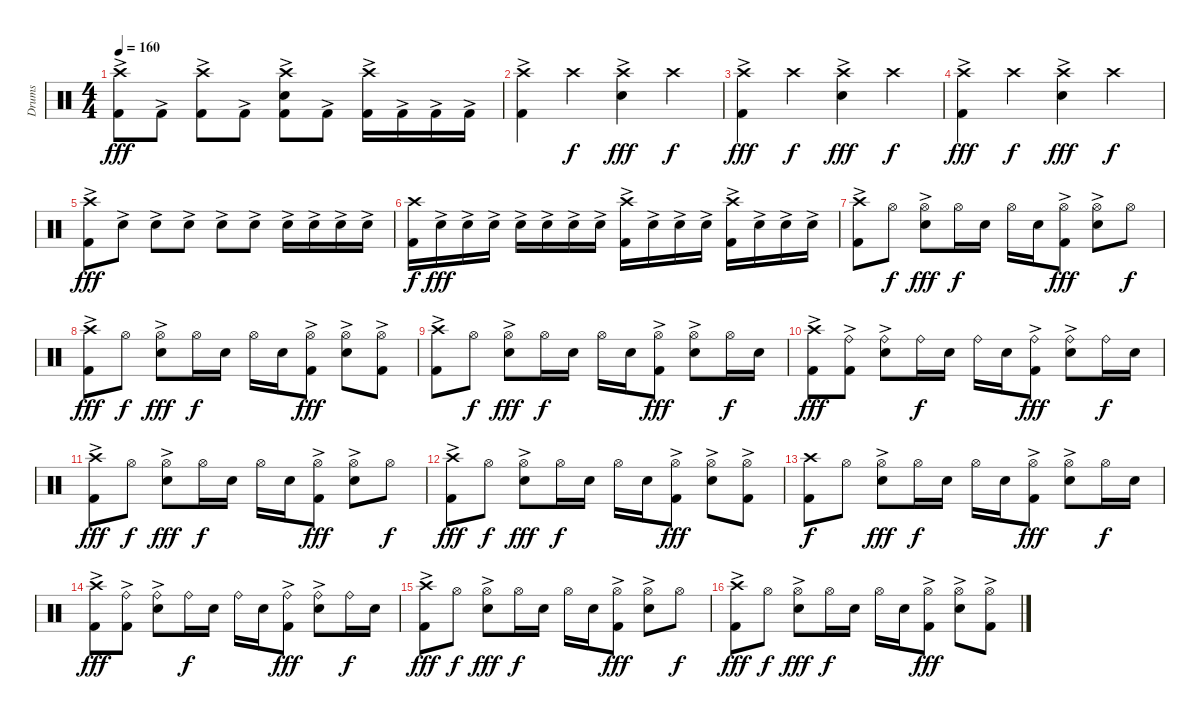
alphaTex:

\track ("Drums" "Drums") {instrument percussion}
\staff {score}
\articulation defaults
\ts (4 4)
\tempo 160
\clef neutral
\ks c
("Crash high (hit)" "Kick (hit) 2"{ac}).8{dy fff} "Kick (hit) 2"{ac}.8 ("Crash high (hit)" "Kick (hit) 2"{ac}).8 "Kick (hit) 2"{ac}.8 ("Crash high (hit)" "Snare (hit) 2"{ac} "Kick (hit) 2"{ac}).8 "Kick (hit) 2"{ac}.8 ("Crash high (hit)" "Kick (hit) 2"{ac}).16 "Kick (hit) 2"{ac}.16 "Kick (hit) 2"{ac}.16 "Kick (hit) 2"{ac}.16 |
("Crash high (hit)" "Kick (hit) 2"{ac}).4 "Crash high (hit)".4{dy f} ("Crash high (hit)" "Snare (hit) 2"{ac}).4{dy fff} "Crash high (hit)".4{dy f} |
("Crash high (hit)" "Kick (hit) 2"{ac}).4{dy fff} "Crash high (hit)".4{dy f} ("Crash high (hit)" "Snare (hit) 2"{ac}).4{dy fff} "Crash high (hit)".4{dy f} |
("Crash high (hit)" "Kick (hit) 2"{ac}).4{dy fff} "Crash high (hit)".4{dy f} ("Crash high (hit)" "Snare (hit) 2"{ac}).4{dy fff} "Crash high (hit)".4{dy f} |
("Crash high (hit)" "Kick (hit) 2"{ac}).8{dy fff} "Snare (hit) 2"{ac}.8 "Snare (hit) 2"{ac}.8 "Snare (hit) 2"{ac}.8 "Snare (hit) 2"{ac}.8 "Snare (hit) 2"{ac}.8 "Snare (hit) 2"{ac}.16 "Snare (hit) 2"{ac}.16 "Snare (hit) 2"{ac}.16 "Snare (hit) 2"{ac}.16 |
("Crash high (hit)" "Kick (hit) 2").16{dy f} "Snare (hit) 2"{ac}.16{dy fff} "Snare (hit) 2"{ac}.16 "Snare (hit) 2"{ac}.16 "Snare (hit) 2"{ac}.16 "Snare (hit) 2"{ac}.16 "Snare (hit) 2"{ac}.16 "Snare (hit) 2"{ac}.16 ("Crash high (hit)" "Kick (hit) 2"{ac}).16 "Snare (hit) 2"{ac}.16 "Snare (hit) 2"{ac}.16 "Snare (hit) 2"{ac}.16 ("Crash high (hit)" "Kick (hit) 2"{ac}).16 "Snare (hit) 2"{ac}.16 "Snare (hit) 2"{ac}.16 "Snare (hit) 2"{ac}.16 |
("Crash high (hit)" "Kick (hit) 2"{ac}).8 "Hi-Hat (open)".8{dy f} ("Hi-Hat (open)" "Snare (hit) 2"{ac}).8{dy fff} "Hi-Hat (open)".16{dy f} "Snare (hit) 2".16 "Hi-Hat (open)".16 "Snare (hit) 2".16 ("Hi-Hat (open)" "Kick (hit) 2"{ac}).8{dy fff} ("Hi-Hat (open)" "Snare (hit) 2"{ac}).8 "Hi-Hat (open)".8{dy f} |
("Crash high (hit)" "Kick (hit) 2"{ac}).8{dy fff} "Hi-Hat (open)".8{dy f} ("Hi-Hat (open)" "Snare (hit) 2"{ac}).8{dy fff} "Hi-Hat (open)".16{dy f} "Snare (hit) 2".16 "Hi-Hat (open)".16 "Snare (hit) 2".16 ("Hi-Hat (open)" "Kick (hit) 2"{ac}).8{dy fff} ("Hi-Hat (open)" "Snare (hit) 2"{ac}).8 ("Hi-Hat (open)" "Kick (hit) 2"{ac}).8 |
("Crash high (hit)" "Kick (hit) 2"{ac}).8 "Hi-Hat (open)".8{dy f} ("Hi-Hat (open)" "Snare (hit) 2"{ac}).8{dy fff} "Hi-Hat (open)".16{dy f} "Snare (hit) 2".16 "Hi-Hat (open)".16 "Snare (hit) 2".16 ("Hi-Hat (open)" "Kick (hit) 2"{ac}).8{dy fff} ("Hi-Hat (open)" "Snare (hit) 2"{ac}).8 "Hi-Hat (open)".16{dy f} "Snare (hit) 2".16 |
("Crash high (hit)" "Kick (hit) 2"{ac}).8{dy fff} ("Ride (bell)" "Kick (hit) 2"{ac}).8 ("Ride (bell)" "Snare (hit) 2"{ac}).8 "Ride (bell)".16{dy f} "Snare (hit) 2".16 "Ride (bell)".16 "Snare (hit) 2".16 ("Ride (bell)" "Kick (hit) 2"{ac}).8{dy fff} ("Ride (bell)" "Snare (hit) 2"{ac}).8 "Ride (bell)".16{dy f} "Snare (hit) 2".16 |
("Crash high (hit)" "Kick (hit) 2"{ac}).8{dy fff} "Hi-Hat (open)".8{dy f} ("Hi-Hat (open)" "Snare (hit) 2"{ac}).8{dy fff} "Hi-Hat (open)".16{dy f} "Snare (hit) 2".16 "Hi-Hat (open)".16 "Snare (hit) 2".16 ("Hi-Hat (open)" "Kick (hit) 2"{ac}).8{dy fff} ("Hi-Hat (open)" "Snare (hit) 2"{ac}).8 "Hi-Hat (open)".8{dy f} |
("Crash high (hit)" "Kick (hit) 2"{ac}).8{dy fff} "Hi-Hat (open)".8{dy f} ("Hi-Hat (open)" "Snare (hit) 2"{ac}).8{dy fff} "Hi-Hat (open)".16{dy f} "Snare (hit) 2".16 "Hi-Hat (open)".16 "Snare (hit) 2".16 ("Hi-Hat (open)" "Kick (hit) 2"{ac}).8{dy fff} ("Hi-Hat (open)" "Snare (hit) 2"{ac}).8 ("Hi-Hat (open)" "Kick (hit) 2"{ac}).8 |
("Crash high (hit)" "Kick (hit) 2").8{dy f} "Hi-Hat (open)".8 ("Hi-Hat (open)" "Snare (hit) 2"{ac}).8{dy fff} "Hi-Hat (open)".16{dy f} "Snare (hit) 2".16 "Hi-Hat (open)".16 "Snare (hit) 2".16 ("Hi-Hat (open)" "Kick (hit) 2"{ac}).8{dy fff} ("Hi-Hat (open)" "Snare (hit) 2"{ac}).8 "Hi-Hat (open)".16{dy f} "Snare (hit) 2".16 |
("Crash high (hit)" "Kick (hit) 2"{ac}).8{dy fff} ("Ride (bell)" "Kick (hit) 2"{ac}).8 ("Ride (bell)" "Snare (hit) 2"{ac}).8 "Ride (bell)".16{dy f} "Snare (hit) 2".16 "Ride (bell)".16 "Snare (hit) 2".16 ("Ride (bell)" "Kick (hit) 2"{ac}).8{dy fff} ("Ride (bell)" "Snare (hit) 2"{ac}).8 "Ride (bell)".16{dy f} "Snare (hit) 2".16 |
("Crash high (hit)" "Kick (hit) 2"{ac}).8{dy fff} "Hi-Hat (open)".8{dy f} ("Hi-Hat (open)" "Snare (hit) 2"{ac}).8{dy fff} "Hi-Hat (open)".16{dy f} "Snare (hit) 2".16 "Hi-Hat (open)".16 "Snare (hit) 2".16 ("Hi-Hat (open)" "Kick (hit) 2"{ac}).8{dy fff} ("Hi-Hat (open)" "Snare (hit) 2"{ac}).8 "Hi-Hat (open)".8{dy f} |
("Crash high (hit)" "Kick (hit) 2"{ac}).8{dy fff} "Hi-Hat (open)".8{dy f} ("Hi-Hat (open)" "Snare (hit) 2"{ac}).8{dy fff} "Hi-Hat (open)".16{dy f} "Snare (hit) 2".16 "Hi-Hat (open)".16 "Snare (hit) 2".16 ("Hi-Hat (open)" "Kick (hit) 2"{ac}).8{dy fff} ("Hi-Hat (open)" "Snare (hit) 2"{ac}).8 ("Hi-Hat (open)" "Kick (hit) 2"{ac}).8
